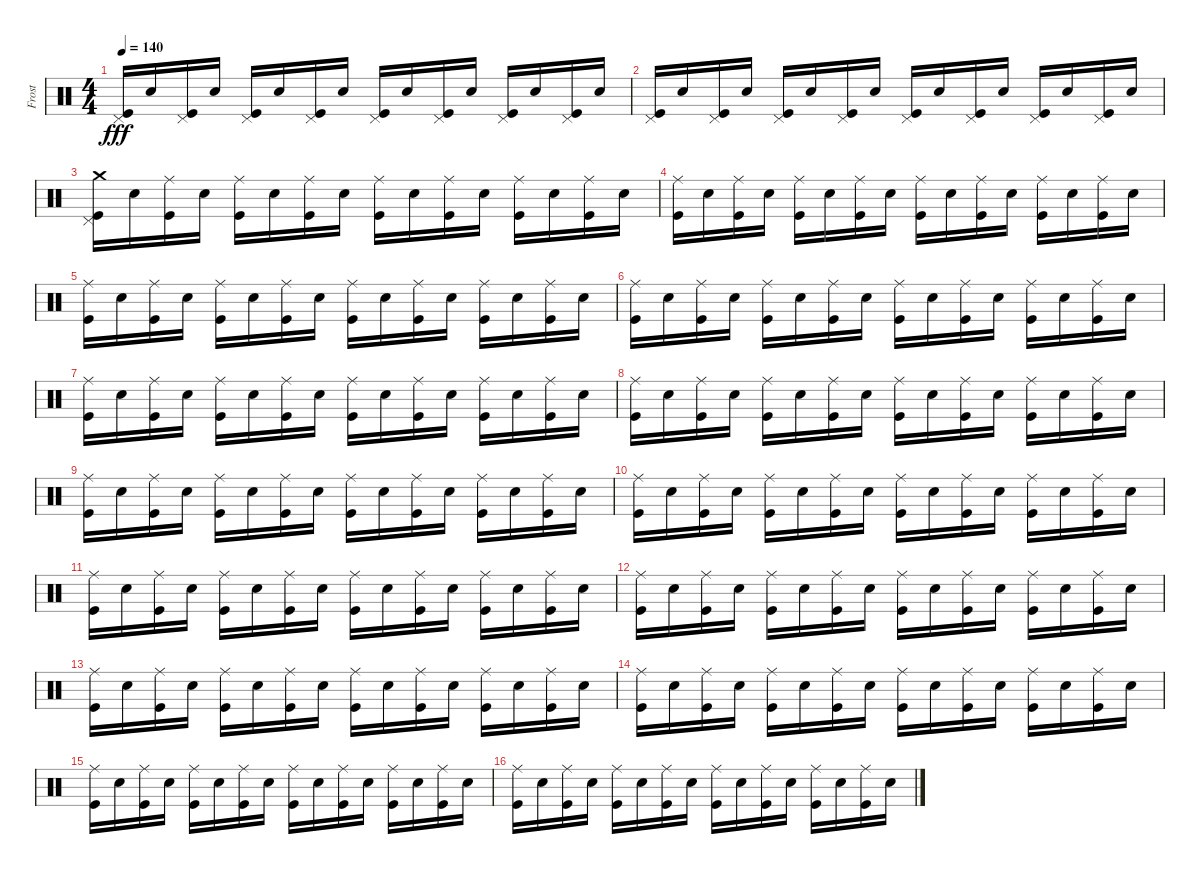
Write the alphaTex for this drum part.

\track ("Frost" "Frost") {instrument percussion}
\staff {score}
\articulation defaults
\ts (4 4)
\tempo 140
\clef neutral
\ks c
("Pedal Hi-Hat (hit)" "Kick (hit)").16{dy fff} "Electric Snare (hit)".16 ("Pedal Hi-Hat (hit)" "Kick (hit)").16 "Electric Snare (hit)".16 ("Pedal Hi-Hat (hit)" "Kick (hit)").16 "Electric Snare (hit)".16 ("Pedal Hi-Hat (hit)" "Kick (hit)").16 "Electric Snare (hit)".16 ("Pedal Hi-Hat (hit)" "Kick (hit)").16 "Electric Snare (hit)".16 ("Pedal Hi-Hat (hit)" "Kick (hit)").16 "Electric Snare (hit)".16 ("Pedal Hi-Hat (hit)" "Kick (hit)").16 "Electric Snare (hit)".16 ("Pedal Hi-Hat (hit)" "Kick (hit)").16 "Electric Snare (hit)".16 |
("Pedal Hi-Hat (hit)" "Kick (hit)").16 "Electric Snare (hit)".16 ("Pedal Hi-Hat (hit)" "Kick (hit)").16 "Electric Snare (hit)".16 ("Pedal Hi-Hat (hit)" "Kick (hit)").16 "Electric Snare (hit)".16 ("Pedal Hi-Hat (hit)" "Kick (hit)").16 "Electric Snare (hit)".16 ("Pedal Hi-Hat (hit)" "Kick (hit)").16 "Electric Snare (hit)".16 ("Pedal Hi-Hat (hit)" "Kick (hit)").16 "Electric Snare (hit)".16 ("Pedal Hi-Hat (hit)" "Kick (hit)").16 "Electric Snare (hit)".16 ("Pedal Hi-Hat (hit)" "Kick (hit)").16 "Electric Snare (hit)".16 |
("Crash medium (hit)" "Pedal Hi-Hat (hit)" "Kick (hit)").16 "Electric Snare (hit)".16 ("Ride (middle)" "Kick (hit)").16 "Electric Snare (hit)".16 ("Ride (middle)" "Kick (hit)").16 "Electric Snare (hit)".16 ("Ride (middle)" "Kick (hit)").16 "Electric Snare (hit)".16 ("Ride (middle)" "Kick (hit)").16 "Electric Snare (hit)".16 ("Ride (middle)" "Kick (hit)").16 "Electric Snare (hit)".16 ("Ride (middle)" "Kick (hit)").16 "Electric Snare (hit)".16 ("Ride (middle)" "Kick (hit)").16 "Electric Snare (hit)".16 |
("Ride (middle)" "Kick (hit)").16 "Electric Snare (hit)".16 ("Ride (middle)" "Kick (hit)").16 "Electric Snare (hit)".16 ("Ride (middle)" "Kick (hit)").16 "Electric Snare (hit)".16 ("Ride (middle)" "Kick (hit)").16 "Electric Snare (hit)".16 ("Ride (middle)" "Kick (hit)").16 "Electric Snare (hit)".16 ("Ride (middle)" "Kick (hit)").16 "Electric Snare (hit)".16 ("Ride (middle)" "Kick (hit)").16 "Electric Snare (hit)".16 ("Ride (middle)" "Kick (hit)").16 "Electric Snare (hit)".16 |
("Ride (middle)" "Kick (hit)").16 "Electric Snare (hit)".16 ("Ride (middle)" "Kick (hit)").16 "Electric Snare (hit)".16 ("Ride (middle)" "Kick (hit)").16 "Electric Snare (hit)".16 ("Ride (middle)" "Kick (hit)").16 "Electric Snare (hit)".16 ("Ride (middle)" "Kick (hit)").16 "Electric Snare (hit)".16 ("Ride (middle)" "Kick (hit)").16 "Electric Snare (hit)".16 ("Ride (middle)" "Kick (hit)").16 "Electric Snare (hit)".16 ("Ride (middle)" "Kick (hit)").16 "Electric Snare (hit)".16 |
("Ride (middle)" "Kick (hit)").16 "Electric Snare (hit)".16 ("Ride (middle)" "Kick (hit)").16 "Electric Snare (hit)".16 ("Ride (middle)" "Kick (hit)").16 "Electric Snare (hit)".16 ("Ride (middle)" "Kick (hit)").16 "Electric Snare (hit)".16 ("Ride (middle)" "Kick (hit)").16 "Electric Snare (hit)".16 ("Ride (middle)" "Kick (hit)").16 "Electric Snare (hit)".16 ("Ride (middle)" "Kick (hit)").16 "Electric Snare (hit)".16 ("Ride (middle)" "Kick (hit)").16 "Electric Snare (hit)".16 |
("Ride (middle)" "Kick (hit)").16 "Electric Snare (hit)".16 ("Ride (middle)" "Kick (hit)").16 "Electric Snare (hit)".16 ("Ride (middle)" "Kick (hit)").16 "Electric Snare (hit)".16 ("Ride (middle)" "Kick (hit)").16 "Electric Snare (hit)".16 ("Ride (middle)" "Kick (hit)").16 "Electric Snare (hit)".16 ("Ride (middle)" "Kick (hit)").16 "Electric Snare (hit)".16 ("Ride (middle)" "Kick (hit)").16 "Electric Snare (hit)".16 ("Ride (middle)" "Kick (hit)").16 "Electric Snare (hit)".16 |
("Ride (middle)" "Kick (hit)").16 "Electric Snare (hit)".16 ("Ride (middle)" "Kick (hit)").16 "Electric Snare (hit)".16 ("Ride (middle)" "Kick (hit)").16 "Electric Snare (hit)".16 ("Ride (middle)" "Kick (hit)").16 "Electric Snare (hit)".16 ("Ride (middle)" "Kick (hit)").16 "Electric Snare (hit)".16 ("Ride (middle)" "Kick (hit)").16 "Electric Snare (hit)".16 ("Ride (middle)" "Kick (hit)").16 "Electric Snare (hit)".16 ("Ride (middle)" "Kick (hit)").16 "Electric Snare (hit)".16 |
("Ride (middle)" "Kick (hit)").16 "Electric Snare (hit)".16 ("Ride (middle)" "Kick (hit)").16 "Electric Snare (hit)".16 ("Ride (middle)" "Kick (hit)").16 "Electric Snare (hit)".16 ("Ride (middle)" "Kick (hit)").16 "Electric Snare (hit)".16 ("Ride (middle)" "Kick (hit)").16 "Electric Snare (hit)".16 ("Ride (middle)" "Kick (hit)").16 "Electric Snare (hit)".16 ("Ride (middle)" "Kick (hit)").16 "Electric Snare (hit)".16 ("Ride (middle)" "Kick (hit)").16 "Electric Snare (hit)".16 |
("Ride (middle)" "Kick (hit)").16 "Electric Snare (hit)".16 ("Ride (middle)" "Kick (hit)").16 "Electric Snare (hit)".16 ("Ride (middle)" "Kick (hit)").16 "Electric Snare (hit)".16 ("Ride (middle)" "Kick (hit)").16 "Electric Snare (hit)".16 ("Ride (middle)" "Kick (hit)").16 "Electric Snare (hit)".16 ("Ride (middle)" "Kick (hit)").16 "Electric Snare (hit)".16 ("Ride (middle)" "Kick (hit)").16 "Electric Snare (hit)".16 ("Ride (middle)" "Kick (hit)").16 "Electric Snare (hit)".16 |
("Ride (middle)" "Kick (hit)").16 "Electric Snare (hit)".16 ("Ride (middle)" "Kick (hit)").16 "Electric Snare (hit)".16 ("Ride (middle)" "Kick (hit)").16 "Electric Snare (hit)".16 ("Ride (middle)" "Kick (hit)").16 "Electric Snare (hit)".16 ("Ride (middle)" "Kick (hit)").16 "Electric Snare (hit)".16 ("Ride (middle)" "Kick (hit)").16 "Electric Snare (hit)".16 ("Ride (middle)" "Kick (hit)").16 "Electric Snare (hit)".16 ("Ride (middle)" "Kick (hit)").16 "Electric Snare (hit)".16 |
("Ride (middle)" "Kick (hit)").16 "Electric Snare (hit)".16 ("Ride (middle)" "Kick (hit)").16 "Electric Snare (hit)".16 ("Ride (middle)" "Kick (hit)").16 "Electric Snare (hit)".16 ("Ride (middle)" "Kick (hit)").16 "Electric Snare (hit)".16 ("Ride (middle)" "Kick (hit)").16 "Electric Snare (hit)".16 ("Ride (middle)" "Kick (hit)").16 "Electric Snare (hit)".16 ("Ride (middle)" "Kick (hit)").16 "Electric Snare (hit)".16 ("Ride (middle)" "Kick (hit)").16 "Electric Snare (hit)".16 |
("Ride (middle)" "Kick (hit)").16 "Electric Snare (hit)".16 ("Ride (middle)" "Kick (hit)").16 "Electric Snare (hit)".16 ("Ride (middle)" "Kick (hit)").16 "Electric Snare (hit)".16 ("Ride (middle)" "Kick (hit)").16 "Electric Snare (hit)".16 ("Ride (middle)" "Kick (hit)").16 "Electric Snare (hit)".16 ("Ride (middle)" "Kick (hit)").16 "Electric Snare (hit)".16 ("Ride (middle)" "Kick (hit)").16 "Electric Snare (hit)".16 ("Ride (middle)" "Kick (hit)").16 "Electric Snare (hit)".16 |
("Ride (middle)" "Kick (hit)").16 "Electric Snare (hit)".16 ("Ride (middle)" "Kick (hit)").16 "Electric Snare (hit)".16 ("Ride (middle)" "Kick (hit)").16 "Electric Snare (hit)".16 ("Ride (middle)" "Kick (hit)").16 "Electric Snare (hit)".16 ("Ride (middle)" "Kick (hit)").16 "Electric Snare (hit)".16 ("Ride (middle)" "Kick (hit)").16 "Electric Snare (hit)".16 ("Ride (middle)" "Kick (hit)").16 "Electric Snare (hit)".16 ("Ride (middle)" "Kick (hit)").16 "Electric Snare (hit)".16 |
("Ride (middle)" "Kick (hit)").16 "Electric Snare (hit)".16 ("Ride (middle)" "Kick (hit)").16 "Electric Snare (hit)".16 ("Ride (middle)" "Kick (hit)").16 "Electric Snare (hit)".16 ("Ride (middle)" "Kick (hit)").16 "Electric Snare (hit)".16 ("Ride (middle)" "Kick (hit)").16 "Electric Snare (hit)".16 ("Ride (middle)" "Kick (hit)").16 "Electric Snare (hit)".16 ("Ride (middle)" "Kick (hit)").16 "Electric Snare (hit)".16 ("Ride (middle)" "Kick (hit)").16 "Electric Snare (hit)".16 |
("Ride (middle)" "Kick (hit)").16 "Electric Snare (hit)".16 ("Ride (middle)" "Kick (hit)").16 "Electric Snare (hit)".16 ("Ride (middle)" "Kick (hit)").16 "Electric Snare (hit)".16 ("Ride (middle)" "Kick (hit)").16 "Electric Snare (hit)".16 ("Ride (middle)" "Kick (hit)").16 "Electric Snare (hit)".16 ("Ride (middle)" "Kick (hit)").16 "Electric Snare (hit)".16 ("Ride (middle)" "Kick (hit)").16 "Electric Snare (hit)".16 ("Ride (middle)" "Kick (hit)").16 "Electric Snare (hit)".16
